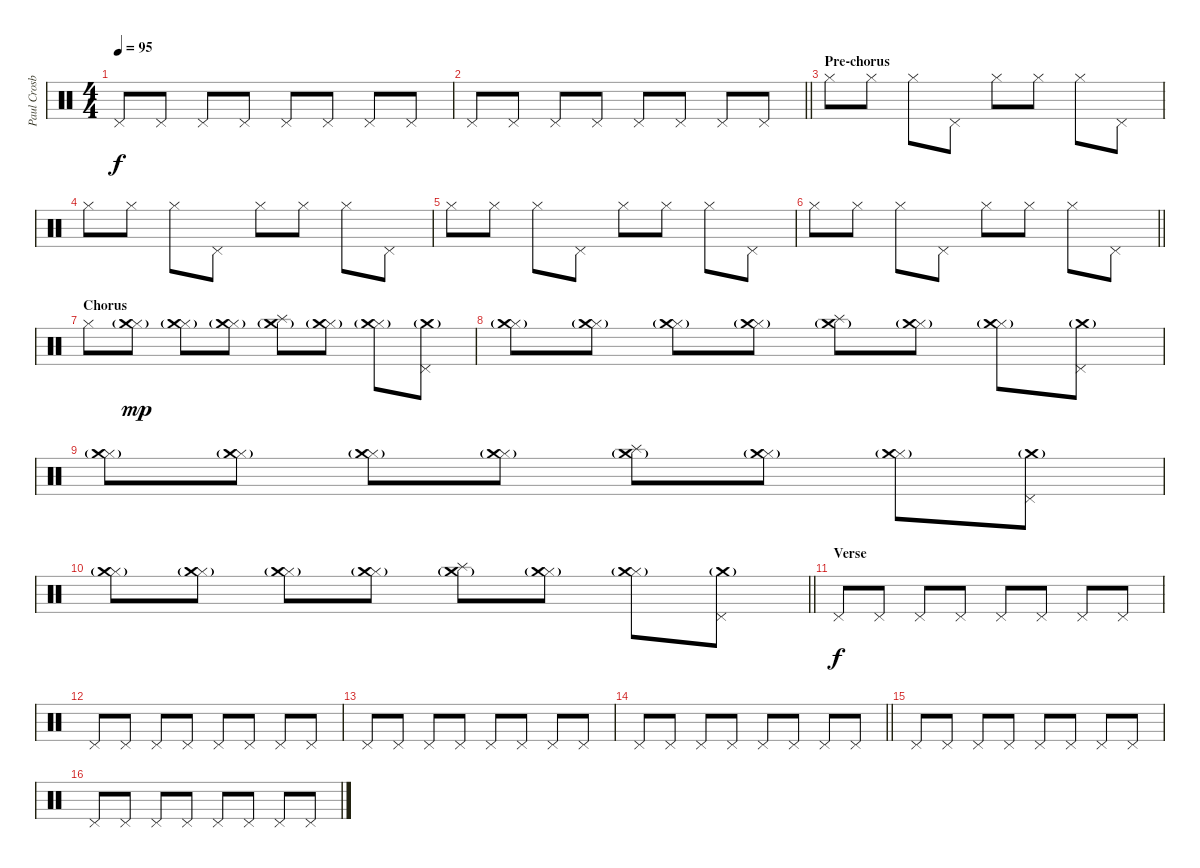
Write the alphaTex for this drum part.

\track ("Paul Crosby (Drums)" "Paul Crosb") {instrument percussion}
\staff {score}
\articulation defaults
\ts (4 4)
\tempo 95
\clef neutral
\ks c "Pedal Hi-Hat (hit)".8{dy f} "Pedal Hi-Hat (hit)".8 "Pedal Hi-Hat (hit)".8 "Pedal Hi-Hat (hit)".8 "Pedal Hi-Hat (hit)".8 "Pedal Hi-Hat (hit)".8 "Pedal Hi-Hat (hit)".8 "Pedal Hi-Hat (hit)".8
|
\barLineRight lightlight "Pedal Hi-Hat (hit)".8 "Pedal Hi-Hat (hit)".8 "Pedal Hi-Hat (hit)".8 "Pedal Hi-Hat (hit)".8 "Pedal Hi-Hat (hit)".8 "Pedal Hi-Hat (hit)".8 "Pedal Hi-Hat (hit)".8 "Pedal Hi-Hat (hit)".8
|
\section ("" "Pre-chorus")
"Hi-Hat (closed)".8 "Hi-Hat (closed)".8 "Hi-Hat (closed)".8 "Pedal Hi-Hat (hit)".8 "Hi-Hat (closed)".8 "Hi-Hat (closed)".8 "Hi-Hat (closed)".8 "Pedal Hi-Hat (hit)".8 |
"Hi-Hat (closed)".8 "Hi-Hat (closed)".8 "Hi-Hat (closed)".8 "Pedal Hi-Hat (hit)".8 "Hi-Hat (closed)".8 "Hi-Hat (closed)".8 "Hi-Hat (closed)".8 "Pedal Hi-Hat (hit)".8 |
"Hi-Hat (closed)".8 "Hi-Hat (closed)".8 "Hi-Hat (closed)".8 "Pedal Hi-Hat (hit)".8 "Hi-Hat (closed)".8 "Hi-Hat (closed)".8 "Hi-Hat (closed)".8 "Pedal Hi-Hat (hit)".8 |
\barLineRight lightlight "Hi-Hat (closed)".8 "Hi-Hat (closed)".8 "Hi-Hat (closed)".8 "Pedal Hi-Hat (hit)".8 "Hi-Hat (closed)".8 "Hi-Hat (closed)".8 "Hi-Hat (closed)".8 "Pedal Hi-Hat (hit)".8
|
\section ("" "Chorus")
"Hi-Hat (closed)".8 ("Hi-Hat (closed)" "Crash medium (hit)"{g}).8{dy mp} ("Hi-Hat (closed)" "Crash medium (hit)"{g}).8 ("Hi-Hat (closed)" "Crash medium (hit)"{g}).8 ("Splash (hit)" "Crash medium (hit)"{g}).8 ("Hi-Hat (closed)" "Crash medium (hit)"{g}).8 ("Hi-Hat (closed)" "Crash medium (hit)"{g}).8 ("Pedal Hi-Hat (hit)" "Crash medium (hit)"{g}).8 |
("Hi-Hat (closed)" "Crash medium (hit)"{g}).8 ("Hi-Hat (closed)" "Crash medium (hit)"{g}).8 ("Hi-Hat (closed)" "Crash medium (hit)"{g}).8 ("Hi-Hat (closed)" "Crash medium (hit)"{g}).8 ("Splash (hit)" "Crash medium (hit)"{g}).8 ("Hi-Hat (closed)" "Crash medium (hit)"{g}).8 ("Hi-Hat (closed)" "Crash medium (hit)"{g}).8 ("Pedal Hi-Hat (hit)" "Crash medium (hit)"{g}).8 |
("Hi-Hat (closed)" "Crash medium (hit)"{g}).8 ("Hi-Hat (closed)" "Crash medium (hit)"{g}).8 ("Hi-Hat (closed)" "Crash medium (hit)"{g}).8 ("Hi-Hat (closed)" "Crash medium (hit)"{g}).8 ("Splash (hit)" "Crash medium (hit)"{g}).8 ("Hi-Hat (closed)" "Crash medium (hit)"{g}).8 ("Hi-Hat (closed)" "Crash medium (hit)"{g}).8 ("Pedal Hi-Hat (hit)" "Crash medium (hit)"{g}).8 |
\barLineRight lightlight
("Hi-Hat (closed)" "Crash medium (hit)"{g}).8 ("Hi-Hat (closed)" "Crash medium (hit)"{g}).8 ("Hi-Hat (closed)" "Crash medium (hit)"{g}).8 ("Hi-Hat (closed)" "Crash medium (hit)"{g}).8 ("Splash (hit)" "Crash medium (hit)"{g}).8 ("Hi-Hat (closed)" "Crash medium (hit)"{g}).8 ("Hi-Hat (closed)" "Crash medium (hit)"{g}).8 ("Pedal Hi-Hat (hit)" "Crash medium (hit)"{g}).8 |
\section ("" "Verse")
"Pedal Hi-Hat (hit)".8{dy f} "Pedal Hi-Hat (hit)".8 "Pedal Hi-Hat (hit)".8 "Pedal Hi-Hat (hit)".8 "Pedal Hi-Hat (hit)".8 "Pedal Hi-Hat (hit)".8 "Pedal Hi-Hat (hit)".8 "Pedal Hi-Hat (hit)".8 |
"Pedal Hi-Hat (hit)".8 "Pedal Hi-Hat (hit)".8 "Pedal Hi-Hat (hit)".8 "Pedal Hi-Hat (hit)".8 "Pedal Hi-Hat (hit)".8 "Pedal Hi-Hat (hit)".8 "Pedal Hi-Hat (hit)".8 "Pedal Hi-Hat (hit)".8 |
"Pedal Hi-Hat (hit)".8 "Pedal Hi-Hat (hit)".8 "Pedal Hi-Hat (hit)".8 "Pedal Hi-Hat (hit)".8 "Pedal Hi-Hat (hit)".8 "Pedal Hi-Hat (hit)".8 "Pedal Hi-Hat (hit)".8 "Pedal Hi-Hat (hit)".8 |
\barLineRight lightlight "Pedal Hi-Hat (hit)".8 "Pedal Hi-Hat (hit)".8 "Pedal Hi-Hat (hit)".8 "Pedal Hi-Hat (hit)".8 "Pedal Hi-Hat (hit)".8 "Pedal Hi-Hat (hit)".8 "Pedal Hi-Hat (hit)".8 "Pedal Hi-Hat (hit)".8
|
"Pedal Hi-Hat (hit)".8 "Pedal Hi-Hat (hit)".8 "Pedal Hi-Hat (hit)".8 "Pedal Hi-Hat (hit)".8 "Pedal Hi-Hat (hit)".8 "Pedal Hi-Hat (hit)".8 "Pedal Hi-Hat (hit)".8 "Pedal Hi-Hat (hit)".8 |
"Pedal Hi-Hat (hit)".8 "Pedal Hi-Hat (hit)".8 "Pedal Hi-Hat (hit)".8 "Pedal Hi-Hat (hit)".8 "Pedal Hi-Hat (hit)".8 "Pedal Hi-Hat (hit)".8 "Pedal Hi-Hat (hit)".8 "Pedal Hi-Hat (hit)".8
